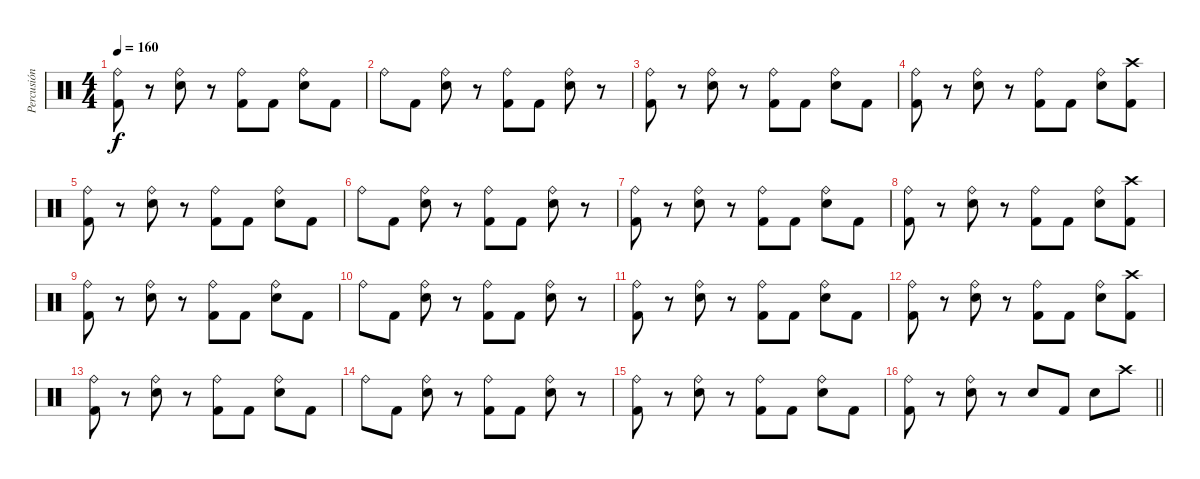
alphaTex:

\track ("Percusión (Nevi)" "Percusión ") {instrument percussion}
\staff {score}
\articulation defaults
\ts (4 4)
\tempo 160
\clef neutral
\ks c
("Kick (hit) 2" "Ride (bell)").8{dy f} r.8 ("Ride (bell)" "Snare (hit) 2").8 r.8 ("Kick (hit) 2" "Ride (bell)").8 "Kick (hit) 2".8 ("Ride (bell)" "Snare (hit) 2").8 "Kick (hit) 2".8 |
"Ride (bell)".8 "Kick (hit) 2".8 ("Ride (bell)" "Snare (hit) 2").8 r.8 ("Kick (hit) 2" "Ride (bell)").8 "Kick (hit) 2".8 ("Ride (bell)" "Snare (hit) 2").8 r.8 |
("Kick (hit) 2" "Ride (bell)").8 r.8 ("Ride (bell)" "Snare (hit) 2").8 r.8 ("Kick (hit) 2" "Ride (bell)").8 "Kick (hit) 2".8 ("Ride (bell)" "Snare (hit) 2").8 "Kick (hit) 2".8 |
("Kick (hit) 2" "Ride (bell)").8 r.8 ("Ride (bell)" "Snare (hit) 2").8 r.8 ("Kick (hit) 2" "Ride (bell)").8 "Kick (hit) 2".8 ("Ride (bell)" "Snare (hit) 2").8 ("Kick (hit) 2" "Crash high (hit)").8 |
("Kick (hit) 2" "Ride (bell)").8 r.8 ("Ride (bell)" "Snare (hit) 2").8 r.8 ("Kick (hit) 2" "Ride (bell)").8 "Kick (hit) 2".8 ("Ride (bell)" "Snare (hit) 2").8 "Kick (hit) 2".8 |
"Ride (bell)".8 "Kick (hit) 2".8 ("Ride (bell)" "Snare (hit) 2").8 r.8 ("Kick (hit) 2" "Ride (bell)").8 "Kick (hit) 2".8 ("Ride (bell)" "Snare (hit) 2").8 r.8 |
("Kick (hit) 2" "Ride (bell)").8 r.8 ("Ride (bell)" "Snare (hit) 2").8 r.8 ("Kick (hit) 2" "Ride (bell)").8 "Kick (hit) 2".8 ("Ride (bell)" "Snare (hit) 2").8 "Kick (hit) 2".8 |
("Kick (hit) 2" "Ride (bell)").8 r.8 ("Ride (bell)" "Snare (hit) 2").8 r.8 ("Kick (hit) 2" "Ride (bell)").8 "Kick (hit) 2".8 ("Ride (bell)" "Snare (hit) 2").8 ("Kick (hit) 2" "Crash high (hit)").8 |
("Kick (hit) 2" "Ride (bell)").8 r.8 ("Ride (bell)" "Snare (hit) 2").8 r.8 ("Kick (hit) 2" "Ride (bell)").8 "Kick (hit) 2".8 ("Ride (bell)" "Snare (hit) 2").8 "Kick (hit) 2".8 |
"Ride (bell)".8 "Kick (hit) 2".8 ("Ride (bell)" "Snare (hit) 2").8 r.8 ("Kick (hit) 2" "Ride (bell)").8 "Kick (hit) 2".8 ("Ride (bell)" "Snare (hit) 2").8 r.8 |
("Kick (hit) 2" "Ride (bell)").8 r.8 ("Ride (bell)" "Snare (hit) 2").8 r.8 ("Kick (hit) 2" "Ride (bell)").8 "Kick (hit) 2".8 ("Ride (bell)" "Snare (hit) 2").8 "Kick (hit) 2".8 |
("Kick (hit) 2" "Ride (bell)").8 r.8 ("Ride (bell)" "Snare (hit) 2").8 r.8 ("Kick (hit) 2" "Ride (bell)").8 "Kick (hit) 2".8 ("Ride (bell)" "Snare (hit) 2").8 ("Kick (hit) 2" "Crash high (hit)").8 |
("Kick (hit) 2" "Ride (bell)").8 r.8 ("Ride (bell)" "Snare (hit) 2").8 r.8 ("Kick (hit) 2" "Ride (bell)").8 "Kick (hit) 2".8 ("Ride (bell)" "Snare (hit) 2").8 "Kick (hit) 2".8 |
"Ride (bell)".8 "Kick (hit) 2".8 ("Ride (bell)" "Snare (hit) 2").8 r.8 ("Kick (hit) 2" "Ride (bell)").8 "Kick (hit) 2".8 ("Ride (bell)" "Snare (hit) 2").8 r.8 |
("Kick (hit) 2" "Ride (bell)").8 r.8 ("Ride (bell)" "Snare (hit) 2").8 r.8 ("Kick (hit) 2" "Ride (bell)").8 "Kick (hit) 2".8 ("Ride (bell)" "Snare (hit) 2").8 "Kick (hit) 2".8 |
\barLineRight lightlight
("Kick (hit) 2" "Ride (bell)").8 r.8 ("Ride (bell)" "Snare (hit) 2").8 r.8 "Snare (hit) 2".8 "Kick (hit) 2".8 "Snare (hit) 2".8 "Crash high (hit)".8
